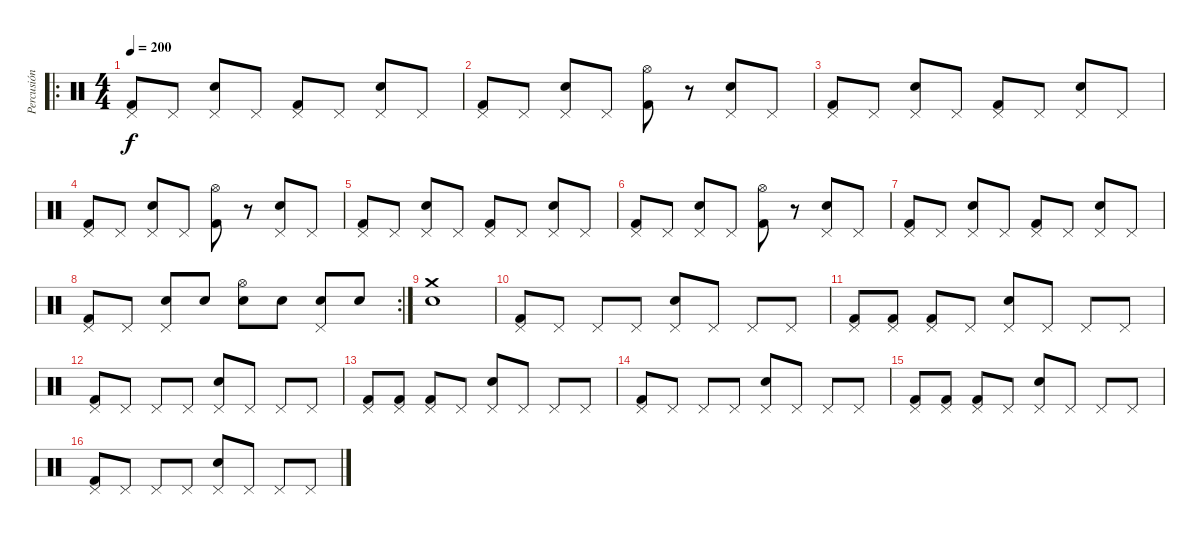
\track ("Percusión" "Percusión") {instrument percussion}
\staff {score}
\articulation defaults
\ro
\ts (4 4)
\tempo 200
\clef neutral
\ks c
("Kick (hit) 2" "Pedal Hi-Hat (hit)").8{dy f} "Pedal Hi-Hat (hit)".8 ("Electric Snare (hit)" "Pedal Hi-Hat (hit)").8 "Pedal Hi-Hat (hit)".8 ("Kick (hit) 2" "Pedal Hi-Hat (hit)").8 "Pedal Hi-Hat (hit)".8 ("Electric Snare (hit)" "Pedal Hi-Hat (hit)").8 "Pedal Hi-Hat (hit)".8 |
("Kick (hit) 2" "Pedal Hi-Hat (hit)").8 "Pedal Hi-Hat (hit)".8 ("Electric Snare (hit)" "Pedal Hi-Hat (hit)").8 "Pedal Hi-Hat (hit)".8 ("Kick (hit) 2" "Hi-Hat (open)").8 r.8 ("Electric Snare (hit)" "Pedal Hi-Hat (hit)").8 "Pedal Hi-Hat (hit)".8 |
("Kick (hit) 2" "Pedal Hi-Hat (hit)").8 "Pedal Hi-Hat (hit)".8 ("Electric Snare (hit)" "Pedal Hi-Hat (hit)").8 "Pedal Hi-Hat (hit)".8 ("Kick (hit) 2" "Pedal Hi-Hat (hit)").8 "Pedal Hi-Hat (hit)".8 ("Electric Snare (hit)" "Pedal Hi-Hat (hit)").8 "Pedal Hi-Hat (hit)".8 |
("Kick (hit) 2" "Pedal Hi-Hat (hit)").8 "Pedal Hi-Hat (hit)".8 ("Electric Snare (hit)" "Pedal Hi-Hat (hit)").8 "Pedal Hi-Hat (hit)".8 ("Kick (hit) 2" "Hi-Hat (open)").8 r.8 ("Electric Snare (hit)" "Pedal Hi-Hat (hit)").8 "Pedal Hi-Hat (hit)".8 |
("Kick (hit) 2" "Pedal Hi-Hat (hit)").8 "Pedal Hi-Hat (hit)".8 ("Electric Snare (hit)" "Pedal Hi-Hat (hit)").8 "Pedal Hi-Hat (hit)".8 ("Kick (hit) 2" "Pedal Hi-Hat (hit)").8 "Pedal Hi-Hat (hit)".8 ("Electric Snare (hit)" "Pedal Hi-Hat (hit)").8 "Pedal Hi-Hat (hit)".8 |
("Kick (hit) 2" "Pedal Hi-Hat (hit)").8 "Pedal Hi-Hat (hit)".8 ("Electric Snare (hit)" "Pedal Hi-Hat (hit)").8 "Pedal Hi-Hat (hit)".8 ("Kick (hit) 2" "Hi-Hat (open)").8 r.8 ("Electric Snare (hit)" "Pedal Hi-Hat (hit)").8 "Pedal Hi-Hat (hit)".8 |
("Kick (hit) 2" "Pedal Hi-Hat (hit)").8 "Pedal Hi-Hat (hit)".8 ("Electric Snare (hit)" "Pedal Hi-Hat (hit)").8 "Pedal Hi-Hat (hit)".8 ("Kick (hit) 2" "Pedal Hi-Hat (hit)").8 "Pedal Hi-Hat (hit)".8 ("Electric Snare (hit)" "Pedal Hi-Hat (hit)").8 "Pedal Hi-Hat (hit)".8 |
\rc 2
("Kick (hit) 2" "Pedal Hi-Hat (hit)").8 "Pedal Hi-Hat (hit)".8 ("Electric Snare (hit)" "Pedal Hi-Hat (hit)").8 "Electric Snare (hit)".8 ("Electric Snare (hit)" "Hi-Hat (open)").8 "Electric Snare (hit)".8 ("Electric Snare (hit)" "Pedal Hi-Hat (hit)").8 "Electric Snare (hit)".8 |
("Electric Snare (hit)" "Crash medium (hit)").1 |
("Kick (hit) 2" "Pedal Hi-Hat (hit)").8 "Pedal Hi-Hat (hit)".8 "Pedal Hi-Hat (hit)".8 "Pedal Hi-Hat (hit)".8 ("Electric Snare (hit)" "Pedal Hi-Hat (hit)").8 "Pedal Hi-Hat (hit)".8 "Pedal Hi-Hat (hit)".8 "Pedal Hi-Hat (hit)".8 |
("Kick (hit) 2" "Pedal Hi-Hat (hit)").8 ("Kick (hit) 2" "Pedal Hi-Hat (hit)").8 ("Kick (hit) 2" "Pedal Hi-Hat (hit)").8 "Pedal Hi-Hat (hit)".8 ("Electric Snare (hit)" "Pedal Hi-Hat (hit)").8 "Pedal Hi-Hat (hit)".8 "Pedal Hi-Hat (hit)".8 "Pedal Hi-Hat (hit)".8 |
("Kick (hit) 2" "Pedal Hi-Hat (hit)").8 "Pedal Hi-Hat (hit)".8 "Pedal Hi-Hat (hit)".8 "Pedal Hi-Hat (hit)".8 ("Electric Snare (hit)" "Pedal Hi-Hat (hit)").8 "Pedal Hi-Hat (hit)".8 "Pedal Hi-Hat (hit)".8 "Pedal Hi-Hat (hit)".8 |
("Kick (hit) 2" "Pedal Hi-Hat (hit)").8 ("Kick (hit) 2" "Pedal Hi-Hat (hit)").8 ("Kick (hit) 2" "Pedal Hi-Hat (hit)").8 "Pedal Hi-Hat (hit)".8 ("Electric Snare (hit)" "Pedal Hi-Hat (hit)").8 "Pedal Hi-Hat (hit)".8 "Pedal Hi-Hat (hit)".8 "Pedal Hi-Hat (hit)".8 |
("Kick (hit) 2" "Pedal Hi-Hat (hit)").8 "Pedal Hi-Hat (hit)".8 "Pedal Hi-Hat (hit)".8 "Pedal Hi-Hat (hit)".8 ("Electric Snare (hit)" "Pedal Hi-Hat (hit)").8 "Pedal Hi-Hat (hit)".8 "Pedal Hi-Hat (hit)".8 "Pedal Hi-Hat (hit)".8 |
("Kick (hit) 2" "Pedal Hi-Hat (hit)").8 ("Kick (hit) 2" "Pedal Hi-Hat (hit)").8 ("Kick (hit) 2" "Pedal Hi-Hat (hit)").8 "Pedal Hi-Hat (hit)".8 ("Electric Snare (hit)" "Pedal Hi-Hat (hit)").8 "Pedal Hi-Hat (hit)".8 "Pedal Hi-Hat (hit)".8 "Pedal Hi-Hat (hit)".8 |
("Kick (hit) 2" "Pedal Hi-Hat (hit)").8 "Pedal Hi-Hat (hit)".8 "Pedal Hi-Hat (hit)".8 "Pedal Hi-Hat (hit)".8 ("Electric Snare (hit)" "Pedal Hi-Hat (hit)").8 "Pedal Hi-Hat (hit)".8 "Pedal Hi-Hat (hit)".8 "Pedal Hi-Hat (hit)".8
